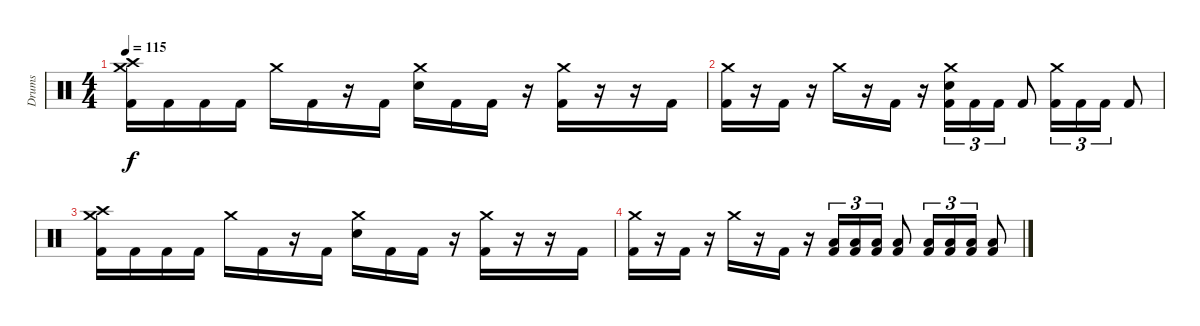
\track ("Drums" "Drums") {instrument percussion}
\staff {score}
\articulation defaults
\ts (4 4)
\tempo 115
\clef neutral
\ks c
("Crash high (hit)" "Crash medium (hit)" "Kick (hit) 2").16{dy f} "Kick (hit) 2".16 "Kick (hit) 2".16 "Kick (hit) 2".16 "Crash medium (hit)".16 "Kick (hit) 2".16 r.16 "Kick (hit) 2".16 ("Crash medium (hit)" "Snare (hit) 2").16 "Kick (hit) 2".16 "Kick (hit) 2".16 r.16 ("Crash medium (hit)" "Kick (hit) 2").16 r.16 r.16 "Kick (hit) 2".16 |
("Crash medium (hit)" "Kick (hit) 2").16 r.16 "Kick (hit) 2".16 r.16 "Crash medium (hit)".16 r.16 "Kick (hit) 2".16 r.16 ("Crash medium (hit)" "Snare (hit) 2" "Kick (hit) 2").16{tu (3 2)} "Kick (hit) 2".16{tu (3 2)} "Kick (hit) 2".16{tu (3 2)} "Kick (hit) 2".8 ("Crash medium (hit)" "Kick (hit) 2").16{tu (3 2)} "Kick (hit) 2".16{tu (3 2)} "Kick (hit) 2".16{tu (3 2)} "Kick (hit) 2".8 |
("Crash high (hit)" "Crash medium (hit)" "Kick (hit) 2").16 "Kick (hit) 2".16 "Kick (hit) 2".16 "Kick (hit) 2".16 "Crash medium (hit)".16 "Kick (hit) 2".16 r.16 "Kick (hit) 2".16 ("Crash medium (hit)" "Snare (hit) 2").16 "Kick (hit) 2".16 "Kick (hit) 2".16 r.16 ("Crash medium (hit)" "Kick (hit) 2").16 r.16 r.16 "Kick (hit) 2".16 |
("Crash medium (hit)" "Kick (hit) 2").16 r.16 "Kick (hit) 2".16 r.16 "Crash medium (hit)".16 r.16 "Kick (hit) 2".16 r.16 ("Low Tom (hit)" "Kick (hit) 2").16{tu (3 2)} ("Low Tom (hit)" "Kick (hit) 2").16{tu (3 2)} ("Low Tom (hit)" "Kick (hit) 2").16{tu (3 2)} ("Low Tom (hit)" "Kick (hit) 2").8 ("Low Tom (hit)" "Kick (hit) 2").16{tu (3 2)} ("Low Tom (hit)" "Kick (hit) 2").16{tu (3 2)} ("Low Tom (hit)" "Kick (hit) 2").16{tu (3 2)} ("Low Tom (hit)" "Kick (hit) 2").8
